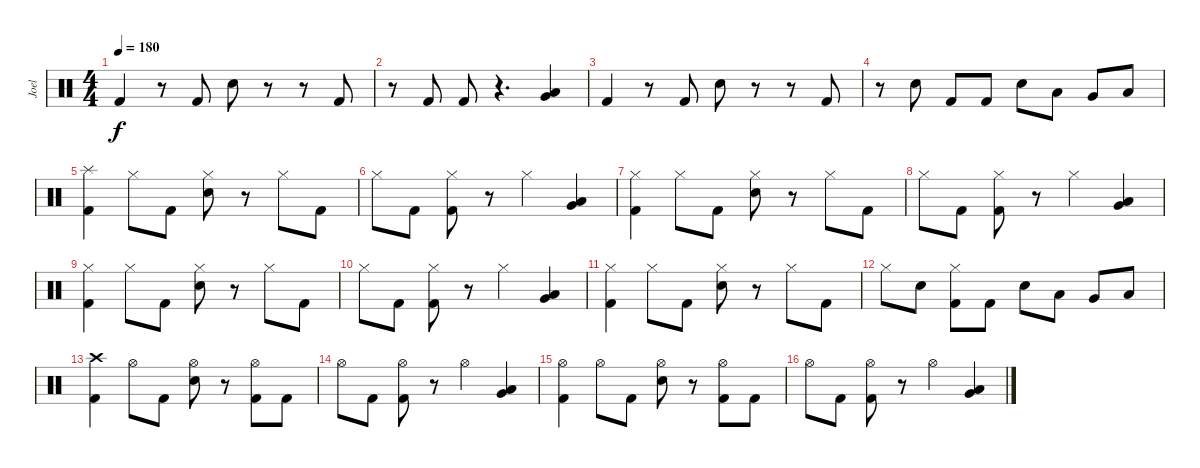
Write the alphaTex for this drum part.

\track ("Joel" "Joel") {instrument percussion}
\staff {score}
\articulation defaults
\ts (4 4)
\tempo 180
\clef neutral
\ks c "Kick (hit) 2".4{dy f}
r.8 "Kick (hit) 2".8 "Snare (hit) 2".8 r.8 r.8 "Kick (hit) 2".8 |
r.8 "Kick (hit) 2".8 "Kick (hit) 2".8 r.4{d} ("Very Low Tom (hit)" "Low Floor Tom (hit)").4 |
"Kick (hit) 2".4 r.8 "Kick (hit) 2".8 "Snare (hit) 2".8 r.8 r.8 "Kick (hit) 2".8 |
r.8 "Snare (hit) 2".8 "Kick (hit) 2".8 "Kick (hit) 2".8 "Snare (hit) 2".8 "Low Tom (hit)".8 "Very Low Tom (hit)".8 "Low Floor Tom (hit)".8 |
("Splash (hit)" "Kick (hit) 2").4 "Hi-Hat (closed)".8 "Kick (hit) 2".8 ("Hi-Hat (closed)" "Snare (hit) 2").8 r.8 "Hi-Hat (closed)".8 "Kick (hit) 2".8 |
"Hi-Hat (closed)".8 "Kick (hit) 2".8 ("Hi-Hat (closed)" "Kick (hit) 2").8 r.8 "Hi-Hat (closed)".4 ("Very Low Tom (hit)" "Low Floor Tom (hit)").4 |
("Hi-Hat (closed)" "Kick (hit) 2").4 "Hi-Hat (closed)".8 "Kick (hit) 2".8 ("Hi-Hat (closed)" "Snare (hit) 2").8 r.8 "Hi-Hat (closed)".8 "Kick (hit) 2".8 |
"Hi-Hat (closed)".8 "Kick (hit) 2".8 ("Hi-Hat (closed)" "Kick (hit) 2").8 r.8 "Hi-Hat (closed)".4 ("Very Low Tom (hit)" "Low Floor Tom (hit)").4 |
("Hi-Hat (closed)" "Kick (hit) 2").4 "Hi-Hat (closed)".8 "Kick (hit) 2".8 ("Hi-Hat (closed)" "Snare (hit) 2").8 r.8 "Hi-Hat (closed)".8 "Kick (hit) 2".8 |
"Hi-Hat (closed)".8 "Kick (hit) 2".8 ("Hi-Hat (closed)" "Kick (hit) 2").8 r.8 "Hi-Hat (closed)".4 ("Very Low Tom (hit)" "Low Floor Tom (hit)").4 |
("Hi-Hat (closed)" "Kick (hit) 2").4 "Hi-Hat (closed)".8 "Kick (hit) 2".8 ("Hi-Hat (closed)" "Snare (hit) 2").8 r.8 "Hi-Hat (closed)".8 "Kick (hit) 2".8 |
"Hi-Hat (closed)".8 "Snare (hit) 2".8 ("Hi-Hat (closed)" "Kick (hit) 2").8 "Kick (hit) 2".8 "Snare (hit) 2".8 "Low Tom (hit)".8 "Very Low Tom (hit)".8 "Low Floor Tom (hit)".8 |
("Crash high (hit)" "Kick (hit) 2").4 "Hi-Hat (open)".8 "Kick (hit) 2".8 ("Hi-Hat (open)" "Snare (hit) 2").8 r.8 ("Hi-Hat (open)" "Kick (hit) 2").8 "Kick (hit) 2".8 |
"Hi-Hat (open)".8 "Kick (hit) 2".8 ("Hi-Hat (open)" "Kick (hit) 2").8 r.8 "Hi-Hat (open)".4 ("Very Low Tom (hit)" "Low Floor Tom (hit)").4 |
("Hi-Hat (open)" "Kick (hit) 2").4 "Hi-Hat (open)".8 "Kick (hit) 2".8 ("Hi-Hat (open)" "Snare (hit) 2").8 r.8 ("Hi-Hat (open)" "Kick (hit) 2").8 "Kick (hit) 2".8 |
"Hi-Hat (open)".8 "Kick (hit) 2".8 ("Hi-Hat (open)" "Kick (hit) 2").8 r.8 "Hi-Hat (open)".4 ("Very Low Tom (hit)" "Low Floor Tom (hit)").4
